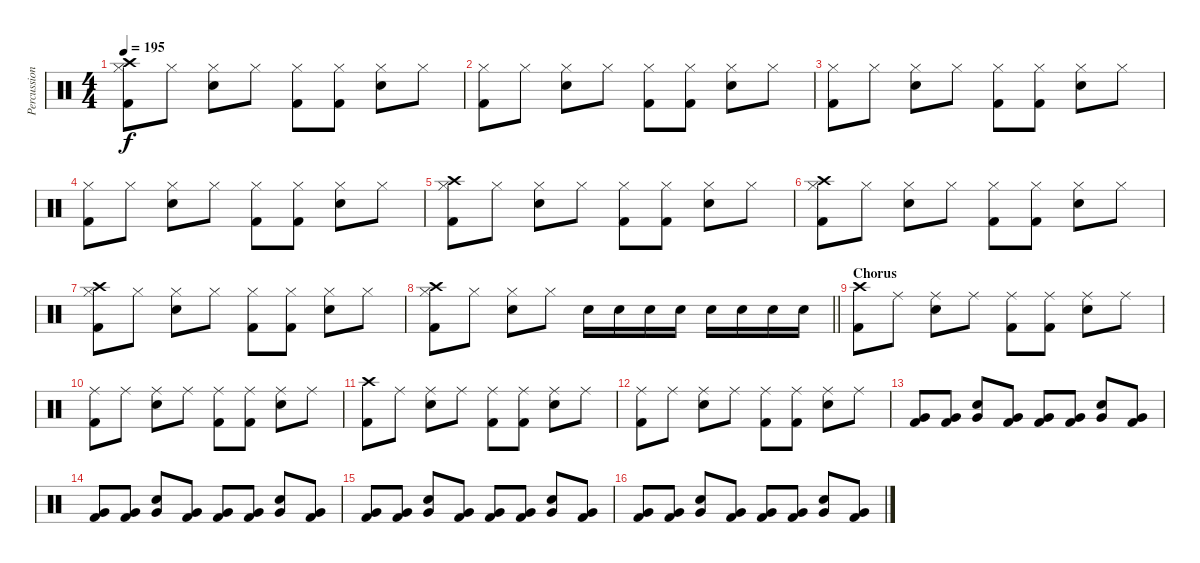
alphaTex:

\track ("Percussion" "Percussion") {instrument percussion}
\staff {score}
\articulation defaults
\ts (4 4)
\tempo 195
\clef neutral
\ks c
("Crash high (hit)" "Hi-Hat (closed)" "Kick (hit) 2").8{dy f} "Hi-Hat (closed)".8 ("Hi-Hat (closed)" "Electric Snare (hit)").8 "Hi-Hat (closed)".8 ("Hi-Hat (closed)" "Kick (hit) 2").8 ("Hi-Hat (closed)" "Kick (hit) 2").8 ("Hi-Hat (closed)" "Electric Snare (hit)").8 "Hi-Hat (closed)".8 |
("Hi-Hat (closed)" "Kick (hit) 2").8 "Hi-Hat (closed)".8 ("Hi-Hat (closed)" "Electric Snare (hit)").8 "Hi-Hat (closed)".8 ("Hi-Hat (closed)" "Kick (hit) 2").8 ("Hi-Hat (closed)" "Kick (hit) 2").8 ("Hi-Hat (closed)" "Electric Snare (hit)").8 "Hi-Hat (closed)".8 |
("Hi-Hat (closed)" "Kick (hit) 2").8 "Hi-Hat (closed)".8 ("Hi-Hat (closed)" "Electric Snare (hit)").8 "Hi-Hat (closed)".8 ("Hi-Hat (closed)" "Kick (hit) 2").8 ("Hi-Hat (closed)" "Kick (hit) 2").8 ("Hi-Hat (closed)" "Electric Snare (hit)").8 "Hi-Hat (closed)".8 |
("Hi-Hat (closed)" "Kick (hit) 2").8 "Hi-Hat (closed)".8 ("Hi-Hat (closed)" "Electric Snare (hit)").8 "Hi-Hat (closed)".8 ("Hi-Hat (closed)" "Kick (hit) 2").8 ("Hi-Hat (closed)" "Kick (hit) 2").8 ("Hi-Hat (closed)" "Electric Snare (hit)").8 "Hi-Hat (closed)".8 |
("Crash high (hit)" "Hi-Hat (closed)" "Kick (hit) 2").8 "Hi-Hat (closed)".8 ("Hi-Hat (closed)" "Electric Snare (hit)").8 "Hi-Hat (closed)".8 ("Hi-Hat (closed)" "Kick (hit) 2").8 ("Hi-Hat (closed)" "Kick (hit) 2").8 ("Hi-Hat (closed)" "Electric Snare (hit)").8 "Hi-Hat (closed)".8 |
("Crash high (hit)" "Hi-Hat (closed)" "Kick (hit) 2").8 "Hi-Hat (closed)".8 ("Hi-Hat (closed)" "Electric Snare (hit)").8 "Hi-Hat (closed)".8 ("Hi-Hat (closed)" "Kick (hit) 2").8 ("Hi-Hat (closed)" "Kick (hit) 2").8 ("Hi-Hat (closed)" "Electric Snare (hit)").8 "Hi-Hat (closed)".8 |
("Crash high (hit)" "Hi-Hat (closed)" "Kick (hit) 2").8 "Hi-Hat (closed)".8 ("Hi-Hat (closed)" "Electric Snare (hit)").8 "Hi-Hat (closed)".8 ("Hi-Hat (closed)" "Kick (hit) 2").8 ("Hi-Hat (closed)" "Kick (hit) 2").8 ("Hi-Hat (closed)" "Electric Snare (hit)").8 "Hi-Hat (closed)".8 |
\barLineRight lightlight
("Crash high (hit)" "Hi-Hat (closed)" "Kick (hit) 2").8 "Hi-Hat (closed)".8 ("Hi-Hat (closed)" "Electric Snare (hit)").8 "Hi-Hat (closed)".8 "Electric Snare (hit)".16 "Electric Snare (hit)".16 "Electric Snare (hit)".16 "Electric Snare (hit)".16 "Electric Snare (hit)".16 "Electric Snare (hit)".16 "Electric Snare (hit)".16 "Electric Snare (hit)".16 |
\section ("" "Chorus")
("Crash high (hit)" "Kick (hit) 2").8 "Ride (middle)".8 ("Ride (middle)" "Electric Snare (hit)").8 "Ride (middle)".8 ("Ride (middle)" "Kick (hit) 2").8 ("Ride (middle)" "Kick (hit) 2").8 ("Ride (middle)" "Electric Snare (hit)").8 "Ride (middle)".8 |
("Ride (middle)" "Kick (hit) 2").8 "Ride (middle)".8 ("Ride (middle)" "Electric Snare (hit)").8 "Ride (middle)".8 ("Ride (middle)" "Kick (hit) 2").8 ("Ride (middle)" "Kick (hit) 2").8 ("Ride (middle)" "Electric Snare (hit)").8 "Ride (middle)".8 |
("Crash high (hit)" "Kick (hit) 2").8 "Ride (middle)".8 ("Ride (middle)" "Electric Snare (hit)").8 "Ride (middle)".8 ("Ride (middle)" "Kick (hit) 2").8 ("Ride (middle)" "Kick (hit) 2").8 ("Ride (middle)" "Electric Snare (hit)").8 "Ride (middle)".8 |
("Ride (middle)" "Kick (hit) 2").8 "Ride (middle)".8 ("Ride (middle)" "Electric Snare (hit)").8 "Ride (middle)".8 ("Ride (middle)" "Kick (hit) 2").8 ("Ride (middle)" "Kick (hit) 2").8 ("Ride (middle)" "Electric Snare (hit)").8 "Ride (middle)".8 |
("Very Low Tom (hit)" "Kick (hit) 2").8 ("Very Low Tom (hit)" "Kick (hit) 2").8 ("Very Low Tom (hit)" "Electric Snare (hit)").8 ("Very Low Tom (hit)" "Kick (hit) 2").8 ("Very Low Tom (hit)" "Kick (hit) 2").8 ("Very Low Tom (hit)" "Kick (hit) 2").8 ("Very Low Tom (hit)" "Electric Snare (hit)").8 ("Very Low Tom (hit)" "Kick (hit) 2").8 |
("Very Low Tom (hit)" "Kick (hit) 2").8 ("Very Low Tom (hit)" "Kick (hit) 2").8 ("Very Low Tom (hit)" "Electric Snare (hit)").8 ("Very Low Tom (hit)" "Kick (hit) 2").8 ("Very Low Tom (hit)" "Kick (hit) 2").8 ("Very Low Tom (hit)" "Kick (hit) 2").8 ("Very Low Tom (hit)" "Electric Snare (hit)").8 ("Very Low Tom (hit)" "Kick (hit) 2").8 |
("Very Low Tom (hit)" "Kick (hit) 2").8 ("Very Low Tom (hit)" "Kick (hit) 2").8 ("Very Low Tom (hit)" "Electric Snare (hit)").8 ("Very Low Tom (hit)" "Kick (hit) 2").8 ("Very Low Tom (hit)" "Kick (hit) 2").8 ("Very Low Tom (hit)" "Kick (hit) 2").8 ("Very Low Tom (hit)" "Electric Snare (hit)").8 ("Very Low Tom (hit)" "Kick (hit) 2").8 |
("Very Low Tom (hit)" "Kick (hit) 2").8 ("Very Low Tom (hit)" "Kick (hit) 2").8 ("Very Low Tom (hit)" "Electric Snare (hit)").8 ("Very Low Tom (hit)" "Kick (hit) 2").8 ("Very Low Tom (hit)" "Kick (hit) 2").8 ("Very Low Tom (hit)" "Kick (hit) 2").8 ("Very Low Tom (hit)" "Electric Snare (hit)").8 ("Very Low Tom (hit)" "Kick (hit) 2").8
